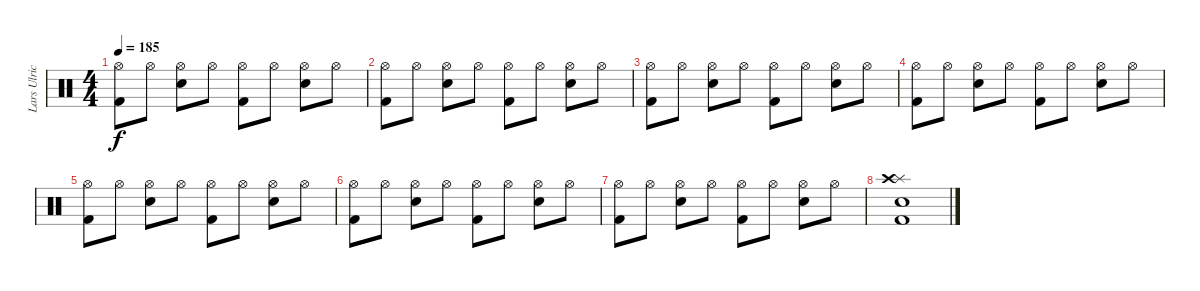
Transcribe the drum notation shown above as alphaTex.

\track ("Lars Ulrich" "Lars Ulric") {instrument percussion}
\staff {score}
\articulation defaults
\ts (4 4)
\tempo 185
\clef neutral
\ks c
("Kick (hit) 2" "Hi-Hat (open)").8{dy f} "Hi-Hat (open)".8 ("Snare (hit) 2" "Hi-Hat (open)").8 "Hi-Hat (open)".8 ("Kick (hit) 2" "Hi-Hat (open)").8 "Hi-Hat (open)".8 ("Snare (hit) 2" "Hi-Hat (open)").8 "Hi-Hat (open)".8 |
("Kick (hit) 2" "Hi-Hat (open)").8 "Hi-Hat (open)".8 ("Snare (hit) 2" "Hi-Hat (open)").8 "Hi-Hat (open)".8 ("Kick (hit) 2" "Hi-Hat (open)").8 "Hi-Hat (open)".8 ("Snare (hit) 2" "Hi-Hat (open)").8 "Hi-Hat (open)".8 |
("Kick (hit) 2" "Hi-Hat (open)").8 "Hi-Hat (open)".8 ("Snare (hit) 2" "Hi-Hat (open)").8 "Hi-Hat (open)".8 ("Kick (hit) 2" "Hi-Hat (open)").8 "Hi-Hat (open)".8 ("Snare (hit) 2" "Hi-Hat (open)").8 "Hi-Hat (open)".8 |
("Kick (hit) 2" "Hi-Hat (open)").8 "Hi-Hat (open)".8 ("Snare (hit) 2" "Hi-Hat (open)").8 "Hi-Hat (open)".8 ("Kick (hit) 2" "Hi-Hat (open)").8 "Hi-Hat (open)".8 ("Snare (hit) 2" "Hi-Hat (open)").8 "Hi-Hat (open)".8 |
("Kick (hit) 2" "Hi-Hat (open)").8 "Hi-Hat (open)".8 ("Snare (hit) 2" "Hi-Hat (open)").8 "Hi-Hat (open)".8 ("Kick (hit) 2" "Hi-Hat (open)").8 "Hi-Hat (open)".8 ("Snare (hit) 2" "Hi-Hat (open)").8 "Hi-Hat (open)".8 |
("Kick (hit) 2" "Hi-Hat (open)").8 "Hi-Hat (open)".8 ("Snare (hit) 2" "Hi-Hat (open)").8 "Hi-Hat (open)".8 ("Kick (hit) 2" "Hi-Hat (open)").8 "Hi-Hat (open)".8 ("Snare (hit) 2" "Hi-Hat (open)").8 "Hi-Hat (open)".8 |
("Kick (hit) 2" "Hi-Hat (open)").8 "Hi-Hat (open)".8 ("Snare (hit) 2" "Hi-Hat (open)").8 "Hi-Hat (open)".8 ("Kick (hit) 2" "Hi-Hat (open)").8 "Hi-Hat (open)".8 ("Snare (hit) 2" "Hi-Hat (open)").8 "Hi-Hat (open)".8 |
("Kick (hit) 2" "Snare (hit) 2" "Splash (hit)" "Crash high (hit)").1
